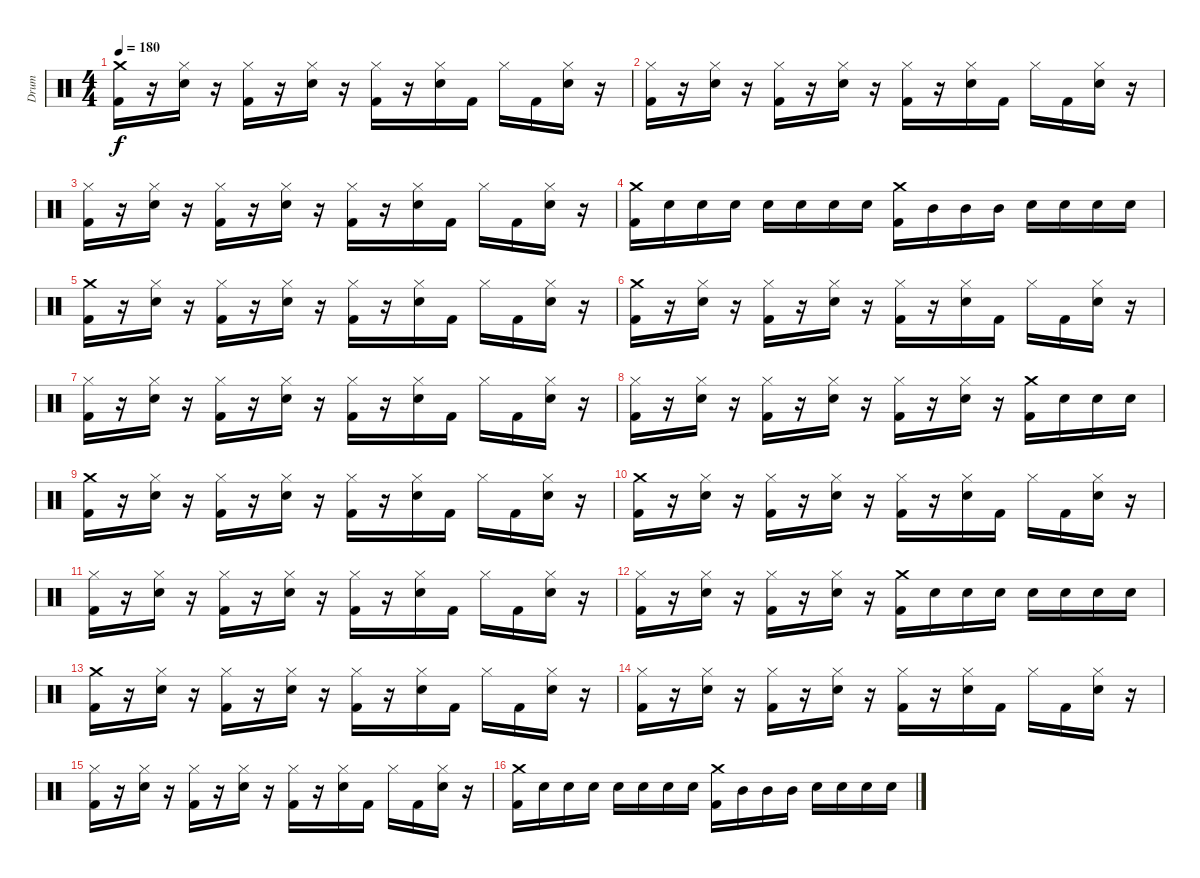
\track ("Drum" "Drum") {instrument percussion}
\staff {score}
\articulation defaults
\ts (4 4)
\tempo 180
\clef neutral
\ks c
("Crash medium (hit)" "Kick (hit) 2").16{dy f} r.16 ("Hi-Hat (closed)" "Electric Snare (hit)").16 r.16 ("Hi-Hat (closed)" "Kick (hit) 2").16 r.16 ("Hi-Hat (closed)" "Electric Snare (hit)").16 r.16 ("Hi-Hat (closed)" "Kick (hit) 2").16 r.16 ("Hi-Hat (closed)" "Electric Snare (hit)").16 "Kick (hit) 2".16 "Hi-Hat (closed)".16 "Kick (hit) 2".16 ("Hi-Hat (closed)" "Electric Snare (hit)").16 r.16 |
("Hi-Hat (closed)" "Kick (hit) 2").16 r.16 ("Hi-Hat (closed)" "Electric Snare (hit)").16 r.16 ("Hi-Hat (closed)" "Kick (hit) 2").16 r.16 ("Hi-Hat (closed)" "Electric Snare (hit)").16 r.16 ("Hi-Hat (closed)" "Kick (hit) 2").16 r.16 ("Hi-Hat (closed)" "Electric Snare (hit)").16 "Kick (hit) 2".16 "Hi-Hat (closed)".16 "Kick (hit) 2".16 ("Hi-Hat (closed)" "Electric Snare (hit)").16 r.16 |
("Hi-Hat (closed)" "Kick (hit) 2").16 r.16 ("Hi-Hat (closed)" "Electric Snare (hit)").16 r.16 ("Hi-Hat (closed)" "Kick (hit) 2").16 r.16 ("Hi-Hat (closed)" "Electric Snare (hit)").16 r.16 ("Hi-Hat (closed)" "Kick (hit) 2").16 r.16 ("Hi-Hat (closed)" "Electric Snare (hit)").16 "Kick (hit) 2".16 "Hi-Hat (closed)".16 "Kick (hit) 2".16 ("Hi-Hat (closed)" "Electric Snare (hit)").16 r.16 |
("Crash medium (hit)" "Kick (hit) 2").16 "Electric Snare (hit)".16 "Electric Snare (hit)".16 "Electric Snare (hit)".16 "Electric Snare (hit)".16 "Electric Snare (hit)".16 "Electric Snare (hit)".16 "Electric Snare (hit)".16 ("Crash medium (hit)" "Kick (hit) 2").16 "Mid Tom (hit)".16 "Mid Tom (hit)".16 "Mid Tom (hit)".16 "Electric Snare (hit)".16 "Electric Snare (hit)".16 "Electric Snare (hit)".16 "Electric Snare (hit)".16 |
("Crash medium (hit)" "Kick (hit) 2").16 r.16 ("Hi-Hat (closed)" "Electric Snare (hit)").16 r.16 ("Hi-Hat (closed)" "Kick (hit) 2").16 r.16 ("Hi-Hat (closed)" "Electric Snare (hit)").16 r.16 ("Hi-Hat (closed)" "Kick (hit) 2").16 r.16 ("Hi-Hat (closed)" "Electric Snare (hit)").16 "Kick (hit) 2".16 "Hi-Hat (closed)".16 "Kick (hit) 2".16 ("Hi-Hat (closed)" "Electric Snare (hit)").16 r.16 |
("Crash medium (hit)" "Kick (hit) 2").16 r.16 ("Hi-Hat (closed)" "Electric Snare (hit)").16 r.16 ("Hi-Hat (closed)" "Kick (hit) 2").16 r.16 ("Hi-Hat (closed)" "Electric Snare (hit)").16 r.16 ("Hi-Hat (closed)" "Kick (hit) 2").16 r.16 ("Hi-Hat (closed)" "Electric Snare (hit)").16 "Kick (hit) 2".16 "Hi-Hat (closed)".16 "Kick (hit) 2".16 ("Hi-Hat (closed)" "Electric Snare (hit)").16 r.16 |
("Hi-Hat (closed)" "Kick (hit) 2").16 r.16 ("Hi-Hat (closed)" "Electric Snare (hit)").16 r.16 ("Hi-Hat (closed)" "Kick (hit) 2").16 r.16 ("Hi-Hat (closed)" "Electric Snare (hit)").16 r.16 ("Hi-Hat (closed)" "Kick (hit) 2").16 r.16 ("Hi-Hat (closed)" "Electric Snare (hit)").16 "Kick (hit) 2".16 "Hi-Hat (closed)".16 "Kick (hit) 2".16 ("Hi-Hat (closed)" "Electric Snare (hit)").16 r.16 |
("Hi-Hat (closed)" "Kick (hit) 2").16 r.16 ("Hi-Hat (closed)" "Electric Snare (hit)").16 r.16 ("Hi-Hat (closed)" "Kick (hit) 2").16 r.16 ("Hi-Hat (closed)" "Electric Snare (hit)").16 r.16 ("Hi-Hat (closed)" "Kick (hit) 2").16 r.16 ("Hi-Hat (closed)" "Electric Snare (hit)").16 r.16 ("Crash medium (hit)" "Kick (hit) 2").16 "Electric Snare (hit)".16 "Electric Snare (hit)".16 "Electric Snare (hit)".16 |
("Crash medium (hit)" "Kick (hit) 2").16 r.16 ("Hi-Hat (closed)" "Electric Snare (hit)").16 r.16 ("Hi-Hat (closed)" "Kick (hit) 2").16 r.16 ("Hi-Hat (closed)" "Electric Snare (hit)").16 r.16 ("Hi-Hat (closed)" "Kick (hit) 2").16 r.16 ("Hi-Hat (closed)" "Electric Snare (hit)").16 "Kick (hit) 2".16 "Hi-Hat (closed)".16 "Kick (hit) 2".16 ("Hi-Hat (closed)" "Electric Snare (hit)").16 r.16 |
("Crash medium (hit)" "Kick (hit) 2").16 r.16 ("Hi-Hat (closed)" "Electric Snare (hit)").16 r.16 ("Hi-Hat (closed)" "Kick (hit) 2").16 r.16 ("Hi-Hat (closed)" "Electric Snare (hit)").16 r.16 ("Hi-Hat (closed)" "Kick (hit) 2").16 r.16 ("Hi-Hat (closed)" "Electric Snare (hit)").16 "Kick (hit) 2".16 "Hi-Hat (closed)".16 "Kick (hit) 2".16 ("Hi-Hat (closed)" "Electric Snare (hit)").16 r.16 |
("Hi-Hat (closed)" "Kick (hit) 2").16 r.16 ("Hi-Hat (closed)" "Electric Snare (hit)").16 r.16 ("Hi-Hat (closed)" "Kick (hit) 2").16 r.16 ("Hi-Hat (closed)" "Electric Snare (hit)").16 r.16 ("Hi-Hat (closed)" "Kick (hit) 2").16 r.16 ("Hi-Hat (closed)" "Electric Snare (hit)").16 "Kick (hit) 2".16 "Hi-Hat (closed)".16 "Kick (hit) 2".16 ("Hi-Hat (closed)" "Electric Snare (hit)").16 r.16 |
("Hi-Hat (closed)" "Kick (hit) 2").16 r.16 ("Hi-Hat (closed)" "Electric Snare (hit)").16 r.16 ("Hi-Hat (closed)" "Kick (hit) 2").16 r.16 ("Hi-Hat (closed)" "Electric Snare (hit)").16 r.16 ("Crash medium (hit)" "Kick (hit) 2").16 "Electric Snare (hit)".16 "Electric Snare (hit)".16 "Electric Snare (hit)".16 "Electric Snare (hit)".16 "Electric Snare (hit)".16 "Electric Snare (hit)".16 "Electric Snare (hit)".16 |
("Crash medium (hit)" "Kick (hit) 2").16 r.16 ("Hi-Hat (closed)" "Electric Snare (hit)").16 r.16 ("Hi-Hat (closed)" "Kick (hit) 2").16 r.16 ("Hi-Hat (closed)" "Electric Snare (hit)").16 r.16 ("Hi-Hat (closed)" "Kick (hit) 2").16 r.16 ("Hi-Hat (closed)" "Electric Snare (hit)").16 "Kick (hit) 2".16 "Hi-Hat (closed)".16 "Kick (hit) 2".16 ("Hi-Hat (closed)" "Electric Snare (hit)").16 r.16 |
("Hi-Hat (closed)" "Kick (hit) 2").16 r.16 ("Hi-Hat (closed)" "Electric Snare (hit)").16 r.16 ("Hi-Hat (closed)" "Kick (hit) 2").16 r.16 ("Hi-Hat (closed)" "Electric Snare (hit)").16 r.16 ("Hi-Hat (closed)" "Kick (hit) 2").16 r.16 ("Hi-Hat (closed)" "Electric Snare (hit)").16 "Kick (hit) 2".16 "Hi-Hat (closed)".16 "Kick (hit) 2".16 ("Hi-Hat (closed)" "Electric Snare (hit)").16 r.16 |
("Hi-Hat (closed)" "Kick (hit) 2").16 r.16 ("Hi-Hat (closed)" "Electric Snare (hit)").16 r.16 ("Hi-Hat (closed)" "Kick (hit) 2").16 r.16 ("Hi-Hat (closed)" "Electric Snare (hit)").16 r.16 ("Hi-Hat (closed)" "Kick (hit) 2").16 r.16 ("Hi-Hat (closed)" "Electric Snare (hit)").16 "Kick (hit) 2".16 "Hi-Hat (closed)".16 "Kick (hit) 2".16 ("Hi-Hat (closed)" "Electric Snare (hit)").16 r.16 |
("Crash medium (hit)" "Kick (hit) 2").16 "Electric Snare (hit)".16 "Electric Snare (hit)".16 "Electric Snare (hit)".16 "Electric Snare (hit)".16 "Electric Snare (hit)".16 "Electric Snare (hit)".16 "Electric Snare (hit)".16 ("Crash medium (hit)" "Kick (hit) 2").16 "Mid Tom (hit)".16 "Mid Tom (hit)".16 "Mid Tom (hit)".16 "Electric Snare (hit)".16 "Electric Snare (hit)".16 "Electric Snare (hit)".16 "Electric Snare (hit)".16
